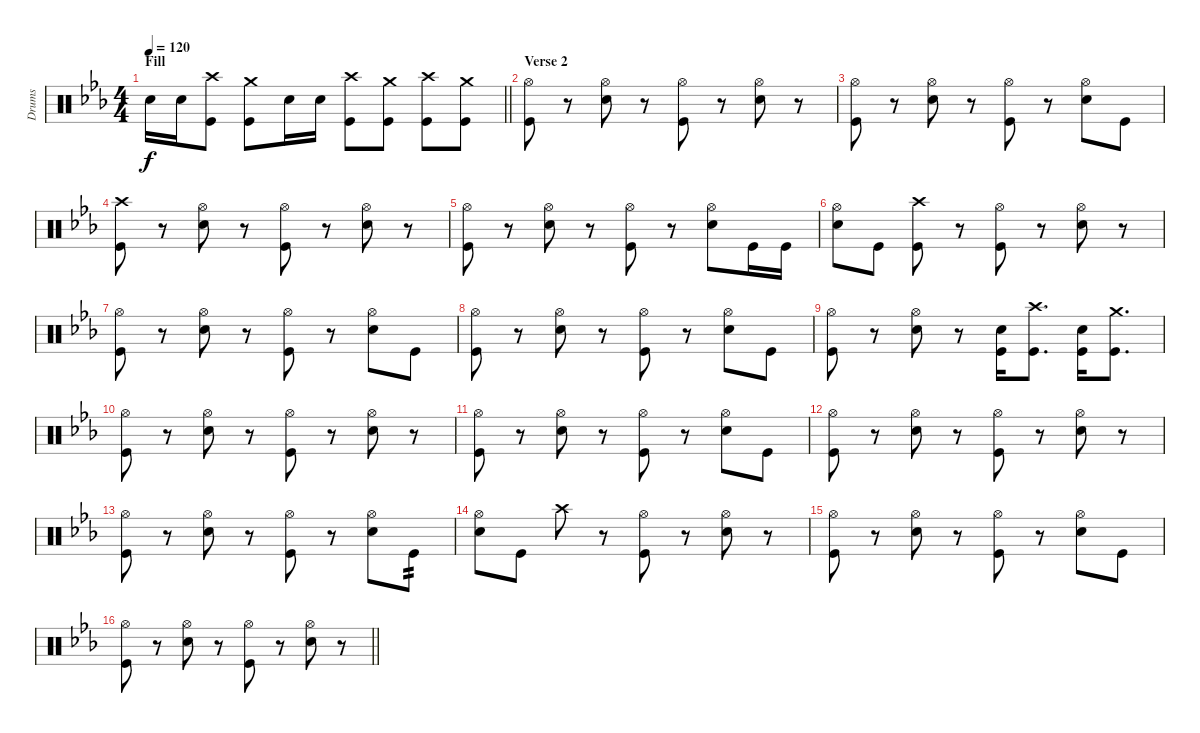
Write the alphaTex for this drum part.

\track ("Drums" "Drums") {instrument percussion}
\staff {score}
\articulation defaults
\ts (4 4)
\section ("" "Fill")
\tempo 120
\clef neutral
\barLineRight lightlight
\ks cminor "Snare (hit) 2".16{dy f} "Snare (hit) 2".16
("Kick (hit)" "Crash high (hit)").8 ("Kick (hit)" "Crash medium (hit)").8 "Snare (hit) 2".16 "Snare (hit) 2".16 ("Kick (hit)" "Crash high (hit)").8 ("Kick (hit)" "Crash medium (hit)").8 ("Kick (hit)" "Crash high (hit)").8 ("Kick (hit)" "Crash medium (hit)").8 |
\section ("" "Verse 2")
("Hi-Hat (open)" "Kick (hit)").8 r.8 ("Hi-Hat (open)" "Snare (hit) 2").8 r.8 ("Hi-Hat (open)" "Kick (hit)").8 r.8 ("Hi-Hat (open)" "Snare (hit) 2").8 r.8 |
("Hi-Hat (open)" "Kick (hit)").8 r.8 ("Hi-Hat (open)" "Snare (hit) 2").8 r.8 ("Hi-Hat (open)" "Kick (hit)").8 r.8 ("Hi-Hat (open)" "Snare (hit) 2").8 "Kick (hit)".8 |
("Crash high (hit)" "Kick (hit)").8 r.8 ("Hi-Hat (open)" "Snare (hit) 2").8 r.8 ("Hi-Hat (open)" "Kick (hit)").8 r.8 ("Hi-Hat (open)" "Snare (hit) 2").8 r.8 |
("Hi-Hat (open)" "Kick (hit)").8 r.8 ("Hi-Hat (open)" "Snare (hit) 2").8 r.8 ("Hi-Hat (open)" "Kick (hit)").8 r.8 ("Hi-Hat (open)" "Snare (hit) 2").8 "Kick (hit)".16 "Kick (hit)".16 |
("Hi-Hat (open)" "Snare (hit) 2").8 "Kick (hit)".8 ("Crash high (hit)" "Kick (hit)").8 r.8 ("Hi-Hat (open)" "Kick (hit)").8 r.8 ("Hi-Hat (open)" "Snare (hit) 2").8 r.8 |
("Hi-Hat (open)" "Kick (hit)").8 r.8 ("Hi-Hat (open)" "Snare (hit) 2").8 r.8 ("Hi-Hat (open)" "Kick (hit)").8 r.8 ("Hi-Hat (open)" "Snare (hit) 2").8 "Kick (hit)".8 |
("Hi-Hat (open)" "Kick (hit)").8 r.8 ("Hi-Hat (open)" "Snare (hit) 2").8 r.8 ("Hi-Hat (open)" "Kick (hit)").8 r.8 ("Hi-Hat (open)" "Snare (hit) 2").8 "Kick (hit)".8 |
("Hi-Hat (open)" "Kick (hit)").8 r.8 ("Hi-Hat (open)" "Snare (hit) 2").8 r.8 ("Snare (hit) 2" "Kick (hit)").16 ("Crash high (hit)" "Kick (hit)").8{d} ("Snare (hit) 2" "Kick (hit)").16 ("Crash medium (hit)" "Kick (hit)").8{d} |
("Hi-Hat (open)" "Kick (hit)").8 r.8 ("Hi-Hat (open)" "Snare (hit) 2").8 r.8 ("Hi-Hat (open)" "Kick (hit)").8 r.8 ("Hi-Hat (open)" "Snare (hit) 2").8 r.8 |
("Hi-Hat (open)" "Kick (hit)").8 r.8 ("Hi-Hat (open)" "Snare (hit) 2").8 r.8 ("Hi-Hat (open)" "Kick (hit)").8 r.8 ("Hi-Hat (open)" "Snare (hit) 2").8 "Kick (hit)".8 |
("Hi-Hat (open)" "Kick (hit)").8 r.8 ("Hi-Hat (open)" "Snare (hit) 2").8 r.8 ("Hi-Hat (open)" "Kick (hit)").8 r.8 ("Hi-Hat (open)" "Snare (hit) 2").8 r.8 |
("Hi-Hat (open)" "Kick (hit)").8 r.8 ("Hi-Hat (open)" "Snare (hit) 2").8 r.8 ("Hi-Hat (open)" "Kick (hit)").8 r.8 ("Hi-Hat (open)" "Snare (hit) 2").8 "Kick (hit)".8{tp 2} |
("Hi-Hat (open)" "Snare (hit) 2").8 "Kick (hit)".8 "Crash high (hit)".8 r.8 ("Hi-Hat (open)" "Kick (hit)").8 r.8 ("Hi-Hat (open)" "Snare (hit) 2").8 r.8 |
("Hi-Hat (open)" "Kick (hit)").8 r.8 ("Hi-Hat (open)" "Snare (hit) 2").8 r.8 ("Hi-Hat (open)" "Kick (hit)").8 r.8 ("Hi-Hat (open)" "Snare (hit) 2").8 "Kick (hit)".8 |
\barLineRight lightlight
("Hi-Hat (open)" "Kick (hit)").8 r.8 ("Hi-Hat (open)" "Snare (hit) 2").8 r.8 ("Hi-Hat (open)" "Kick (hit)").8 r.8 ("Hi-Hat (open)" "Snare (hit) 2").8 r.8
